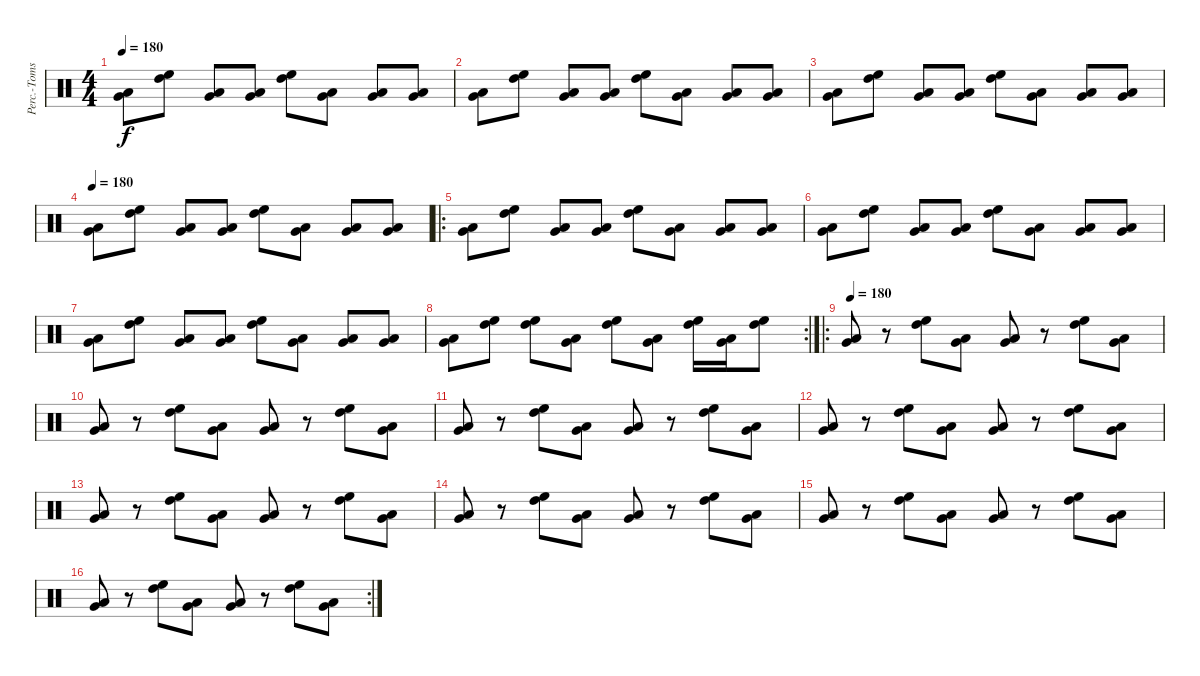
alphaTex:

\track ("Perc.-Toms 2" "Perc.-Toms") {instrument percussion}
\staff {score}
\articulation defaults
\ts (4 4)
\tempo 180
\clef neutral
\ks c
("Very Low Tom (hit)" "Low Floor Tom (hit)").8{dy f} ("High Floor Tom (hit)" "High Tom (hit)").8 ("Very Low Tom (hit)" "Low Floor Tom (hit)").8 ("Very Low Tom (hit)" "Low Floor Tom (hit)").8 ("High Floor Tom (hit)" "High Tom (hit)").8 ("Very Low Tom (hit)" "Low Floor Tom (hit)").8 ("Very Low Tom (hit)" "Low Floor Tom (hit)").8 ("Very Low Tom (hit)" "Low Floor Tom (hit)").8 |
("Very Low Tom (hit)" "Low Floor Tom (hit)").8 ("High Floor Tom (hit)" "High Tom (hit)").8 ("Very Low Tom (hit)" "Low Floor Tom (hit)").8 ("Very Low Tom (hit)" "Low Floor Tom (hit)").8 ("High Floor Tom (hit)" "High Tom (hit)").8 ("Very Low Tom (hit)" "Low Floor Tom (hit)").8 ("Very Low Tom (hit)" "Low Floor Tom (hit)").8 ("Very Low Tom (hit)" "Low Floor Tom (hit)").8 |
("Very Low Tom (hit)" "Low Floor Tom (hit)").8 ("High Floor Tom (hit)" "High Tom (hit)").8 ("Very Low Tom (hit)" "Low Floor Tom (hit)").8 ("Very Low Tom (hit)" "Low Floor Tom (hit)").8 ("High Floor Tom (hit)" "High Tom (hit)").8 ("Very Low Tom (hit)" "Low Floor Tom (hit)").8 ("Very Low Tom (hit)" "Low Floor Tom (hit)").8 ("Very Low Tom (hit)" "Low Floor Tom (hit)").8 |
\tempo 180
("Very Low Tom (hit)" "Low Floor Tom (hit)").8 ("High Floor Tom (hit)" "High Tom (hit)").8 ("Very Low Tom (hit)" "Low Floor Tom (hit)").8 ("Very Low Tom (hit)" "Low Floor Tom (hit)").8 ("High Floor Tom (hit)" "High Tom (hit)").8 ("Very Low Tom (hit)" "Low Floor Tom (hit)").8 ("Very Low Tom (hit)" "Low Floor Tom (hit)").8 ("Very Low Tom (hit)" "Low Floor Tom (hit)").8 |
\ro
("Very Low Tom (hit)" "Low Floor Tom (hit)").8 ("High Floor Tom (hit)" "High Tom (hit)").8 ("Very Low Tom (hit)" "Low Floor Tom (hit)").8 ("Very Low Tom (hit)" "Low Floor Tom (hit)").8 ("High Floor Tom (hit)" "High Tom (hit)").8 ("Very Low Tom (hit)" "Low Floor Tom (hit)").8 ("Very Low Tom (hit)" "Low Floor Tom (hit)").8 ("Very Low Tom (hit)" "Low Floor Tom (hit)").8 |
("Very Low Tom (hit)" "Low Floor Tom (hit)").8 ("High Floor Tom (hit)" "High Tom (hit)").8 ("Very Low Tom (hit)" "Low Floor Tom (hit)").8 ("Very Low Tom (hit)" "Low Floor Tom (hit)").8 ("High Floor Tom (hit)" "High Tom (hit)").8 ("Very Low Tom (hit)" "Low Floor Tom (hit)").8 ("Very Low Tom (hit)" "Low Floor Tom (hit)").8 ("Very Low Tom (hit)" "Low Floor Tom (hit)").8 |
("Very Low Tom (hit)" "Low Floor Tom (hit)").8 ("High Floor Tom (hit)" "High Tom (hit)").8 ("Very Low Tom (hit)" "Low Floor Tom (hit)").8 ("Very Low Tom (hit)" "Low Floor Tom (hit)").8 ("High Floor Tom (hit)" "High Tom (hit)").8 ("Very Low Tom (hit)" "Low Floor Tom (hit)").8 ("Very Low Tom (hit)" "Low Floor Tom (hit)").8 ("Very Low Tom (hit)" "Low Floor Tom (hit)").8 |
\rc 2
("Very Low Tom (hit)" "Low Floor Tom (hit)").8 ("High Floor Tom (hit)" "High Tom (hit)").8 ("High Floor Tom (hit)" "High Tom (hit)").8 ("Very Low Tom (hit)" "Low Floor Tom (hit)").8 ("High Floor Tom (hit)" "High Tom (hit)").8 ("Very Low Tom (hit)" "Low Floor Tom (hit)").8 ("High Floor Tom (hit)" "High Tom (hit)").16 ("Very Low Tom (hit)" "Low Floor Tom (hit)").16 ("High Floor Tom (hit)" "High Tom (hit)").8 |
\ro
\tempo 180
("Very Low Tom (hit)" "Low Floor Tom (hit)").8 r.8 ("High Floor Tom (hit)" "High Tom (hit)").8 ("Very Low Tom (hit)" "Low Floor Tom (hit)").8 ("Very Low Tom (hit)" "Low Floor Tom (hit)").8 r.8 ("High Floor Tom (hit)" "High Tom (hit)").8 ("Very Low Tom (hit)" "Low Floor Tom (hit)").8 |
("Very Low Tom (hit)" "Low Floor Tom (hit)").8 r.8 ("High Floor Tom (hit)" "High Tom (hit)").8 ("Very Low Tom (hit)" "Low Floor Tom (hit)").8 ("Very Low Tom (hit)" "Low Floor Tom (hit)").8 r.8 ("High Floor Tom (hit)" "High Tom (hit)").8 ("Very Low Tom (hit)" "Low Floor Tom (hit)").8 |
("Very Low Tom (hit)" "Low Floor Tom (hit)").8 r.8 ("High Floor Tom (hit)" "High Tom (hit)").8 ("Very Low Tom (hit)" "Low Floor Tom (hit)").8 ("Very Low Tom (hit)" "Low Floor Tom (hit)").8 r.8 ("High Floor Tom (hit)" "High Tom (hit)").8 ("Very Low Tom (hit)" "Low Floor Tom (hit)").8 |
("Very Low Tom (hit)" "Low Floor Tom (hit)").8 r.8 ("High Floor Tom (hit)" "High Tom (hit)").8 ("Very Low Tom (hit)" "Low Floor Tom (hit)").8 ("Very Low Tom (hit)" "Low Floor Tom (hit)").8 r.8 ("High Floor Tom (hit)" "High Tom (hit)").8 ("Very Low Tom (hit)" "Low Floor Tom (hit)").8 |
("Very Low Tom (hit)" "Low Floor Tom (hit)").8 r.8 ("High Floor Tom (hit)" "High Tom (hit)").8 ("Very Low Tom (hit)" "Low Floor Tom (hit)").8 ("Very Low Tom (hit)" "Low Floor Tom (hit)").8 r.8 ("High Floor Tom (hit)" "High Tom (hit)").8 ("Very Low Tom (hit)" "Low Floor Tom (hit)").8 |
("Very Low Tom (hit)" "Low Floor Tom (hit)").8 r.8 ("High Floor Tom (hit)" "High Tom (hit)").8 ("Very Low Tom (hit)" "Low Floor Tom (hit)").8 ("Very Low Tom (hit)" "Low Floor Tom (hit)").8 r.8 ("High Floor Tom (hit)" "High Tom (hit)").8 ("Very Low Tom (hit)" "Low Floor Tom (hit)").8 |
("Very Low Tom (hit)" "Low Floor Tom (hit)").8 r.8 ("High Floor Tom (hit)" "High Tom (hit)").8 ("Very Low Tom (hit)" "Low Floor Tom (hit)").8 ("Very Low Tom (hit)" "Low Floor Tom (hit)").8 r.8 ("High Floor Tom (hit)" "High Tom (hit)").8 ("Very Low Tom (hit)" "Low Floor Tom (hit)").8 |
\rc 2
("Very Low Tom (hit)" "Low Floor Tom (hit)").8 r.8 ("High Floor Tom (hit)" "High Tom (hit)").8 ("Very Low Tom (hit)" "Low Floor Tom (hit)").8 ("Very Low Tom (hit)" "Low Floor Tom (hit)").8 r.8 ("High Floor Tom (hit)" "High Tom (hit)").8 ("Very Low Tom (hit)" "Low Floor Tom (hit)").8
